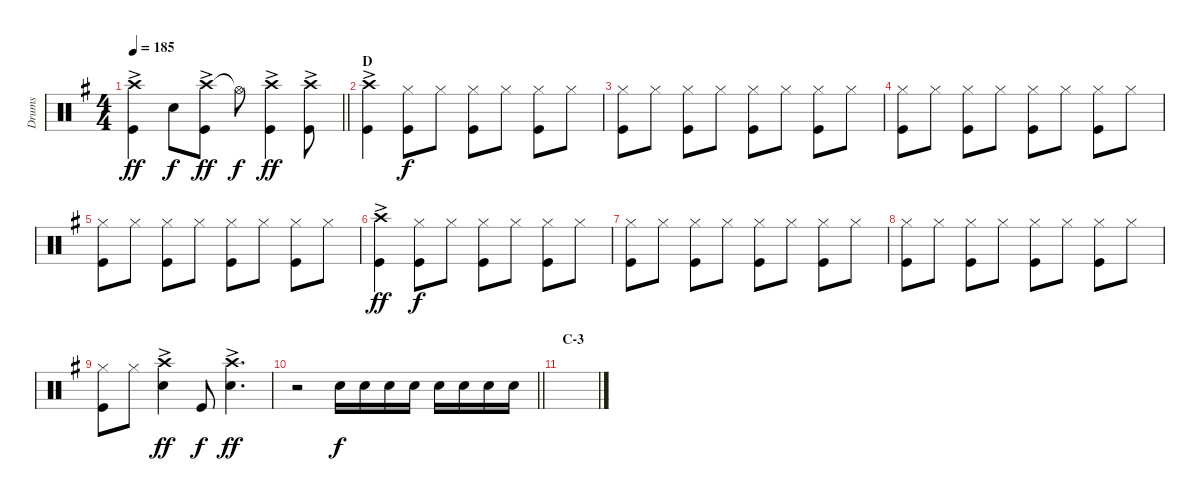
\track ("Drums" "Drums") {instrument percussion}
\staff {score}
\articulation defaults
\ts (4 4)
\tempo 185
\clef neutral
\barLineRight lightlight
\ks g
("Crash high (hit)"{ac} "Kick (hit)").4{dy ff} "Snare (hit) 2".8{dy f} ("Crash high (hit)"{ac} "Kick (hit)").8{dy ff} "Hi-Hat (open)"{t}.8{dy f} ("Crash high (hit)"{ac} "Kick (hit)").4{dy ff} ("Crash high (hit)"{ac} "Kick (hit)").8 |
\section ("" "D")
("Crash high (hit)"{ac} "Kick (hit)").4 ("Hi-Hat (closed)" "Kick (hit)").8{dy f} "Hi-Hat (closed)".8 ("Hi-Hat (closed)" "Kick (hit)").8 "Hi-Hat (closed)".8 ("Hi-Hat (closed)" "Kick (hit)").8 "Hi-Hat (closed)".8 |
("Hi-Hat (closed)" "Kick (hit)").8 "Hi-Hat (closed)".8 ("Hi-Hat (closed)" "Kick (hit)").8 "Hi-Hat (closed)".8 ("Hi-Hat (closed)" "Kick (hit)").8 "Hi-Hat (closed)".8 ("Hi-Hat (closed)" "Kick (hit)").8 "Hi-Hat (closed)".8 |
("Hi-Hat (closed)" "Kick (hit)").8 "Hi-Hat (closed)".8 ("Hi-Hat (closed)" "Kick (hit)").8 "Hi-Hat (closed)".8 ("Hi-Hat (closed)" "Kick (hit)").8 "Hi-Hat (closed)".8 ("Hi-Hat (closed)" "Kick (hit)").8 "Hi-Hat (closed)".8 |
("Hi-Hat (closed)" "Kick (hit)").8 "Hi-Hat (closed)".8 ("Hi-Hat (closed)" "Kick (hit)").8 "Hi-Hat (closed)".8 ("Hi-Hat (closed)" "Kick (hit)").8 "Hi-Hat (closed)".8 ("Hi-Hat (closed)" "Kick (hit)").8 "Hi-Hat (closed)".8 |
("Crash high (hit)"{ac} "Kick (hit)").4{dy ff} ("Hi-Hat (closed)" "Kick (hit)").8{dy f} "Hi-Hat (closed)".8 ("Hi-Hat (closed)" "Kick (hit)").8 "Hi-Hat (closed)".8 ("Hi-Hat (closed)" "Kick (hit)").8 "Hi-Hat (closed)".8 |
("Hi-Hat (closed)" "Kick (hit)").8 "Hi-Hat (closed)".8 ("Hi-Hat (closed)" "Kick (hit)").8 "Hi-Hat (closed)".8 ("Hi-Hat (closed)" "Kick (hit)").8 "Hi-Hat (closed)".8 ("Hi-Hat (closed)" "Kick (hit)").8 "Hi-Hat (closed)".8 |
("Hi-Hat (closed)" "Kick (hit)").8 "Hi-Hat (closed)".8 ("Hi-Hat (closed)" "Kick (hit)").8 "Hi-Hat (closed)".8 ("Hi-Hat (closed)" "Kick (hit)").8 "Hi-Hat (closed)".8 ("Hi-Hat (closed)" "Kick (hit)").8 "Hi-Hat (closed)".8 |
("Hi-Hat (closed)" "Kick (hit)").8 "Hi-Hat (closed)".8 ("Crash high (hit)"{ac} "Snare (hit) 2").4{dy ff} "Kick (hit)".8{dy f} ("Crash high (hit)"{ac} "Snare (hit) 2").4{d dy ff} |
\barLineRight lightlight
r.2 "Snare (hit) 2".16{dy f} "Snare (hit) 2".16 "Snare (hit) 2".16 "Snare (hit) 2".16 "Snare (hit) 2".16 "Snare (hit) 2".16 "Snare (hit) 2".16 "Snare (hit) 2".16 |
\section ("" "C-3")
